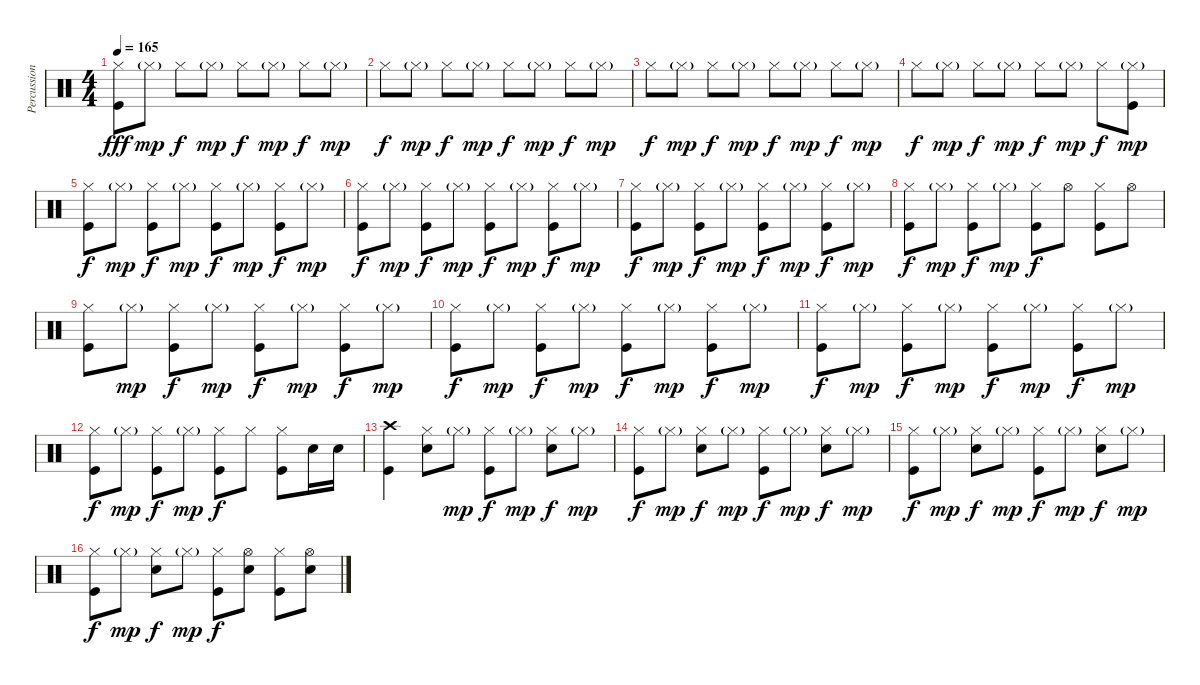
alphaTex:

\track ("Percussion" "Percussion") {instrument percussion}
\staff {score}
\articulation defaults
\ts (4 4)
\tempo 165
\clef neutral
\ks c
("Hi-Hat (closed)" "Kick (hit)").8{dy fff} "Hi-Hat (closed)"{g}.8{dy mp} "Hi-Hat (closed)".8{dy f} "Hi-Hat (closed)"{g}.8{dy mp} "Hi-Hat (closed)".8{dy f} "Hi-Hat (closed)"{g}.8{dy mp} "Hi-Hat (closed)".8{dy f} "Hi-Hat (closed)"{g}.8{dy mp} |
"Hi-Hat (closed)".8{dy f} "Hi-Hat (closed)"{g}.8{dy mp} "Hi-Hat (closed)".8{dy f} "Hi-Hat (closed)"{g}.8{dy mp} "Hi-Hat (closed)".8{dy f} "Hi-Hat (closed)"{g}.8{dy mp} "Hi-Hat (closed)".8{dy f} "Hi-Hat (closed)"{g}.8{dy mp} |
"Hi-Hat (closed)".8{dy f} "Hi-Hat (closed)"{g}.8{dy mp} "Hi-Hat (closed)".8{dy f} "Hi-Hat (closed)"{g}.8{dy mp} "Hi-Hat (closed)".8{dy f} "Hi-Hat (closed)"{g}.8{dy mp} "Hi-Hat (closed)".8{dy f} "Hi-Hat (closed)"{g}.8{dy mp} |
"Hi-Hat (closed)".8{dy f} "Hi-Hat (closed)"{g}.8{dy mp} "Hi-Hat (closed)".8{dy f} "Hi-Hat (closed)"{g}.8{dy mp} "Hi-Hat (closed)".8{dy f} "Hi-Hat (closed)"{g}.8{dy mp} "Hi-Hat (closed)".8{dy f} ("Hi-Hat (closed)"{g} "Kick (hit)").8{dy mp} |
("Hi-Hat (closed)" "Kick (hit)").8{dy f} "Hi-Hat (closed)"{g}.8{dy mp} ("Hi-Hat (closed)" "Kick (hit)").8{dy f} "Hi-Hat (closed)"{g}.8{dy mp} ("Hi-Hat (closed)" "Kick (hit)").8{dy f} "Hi-Hat (closed)"{g}.8{dy mp} ("Hi-Hat (closed)" "Kick (hit)").8{dy f} "Hi-Hat (closed)"{g}.8{dy mp} |
("Hi-Hat (closed)" "Kick (hit)").8{dy f} "Hi-Hat (closed)"{g}.8{dy mp} ("Hi-Hat (closed)" "Kick (hit)").8{dy f} "Hi-Hat (closed)"{g}.8{dy mp} ("Hi-Hat (closed)" "Kick (hit)").8{dy f} "Hi-Hat (closed)"{g}.8{dy mp} ("Hi-Hat (closed)" "Kick (hit)").8{dy f} "Hi-Hat (closed)"{g}.8{dy mp} |
("Hi-Hat (closed)" "Kick (hit)").8{dy f} "Hi-Hat (closed)"{g}.8{dy mp} ("Hi-Hat (closed)" "Kick (hit)").8{dy f} "Hi-Hat (closed)"{g}.8{dy mp} ("Hi-Hat (closed)" "Kick (hit)").8{dy f} "Hi-Hat (closed)"{g}.8{dy mp} ("Hi-Hat (closed)" "Kick (hit)").8{dy f} "Hi-Hat (closed)"{g}.8{dy mp} |
("Hi-Hat (closed)" "Kick (hit)").8{dy f} "Hi-Hat (closed)"{g}.8{dy mp} ("Hi-Hat (closed)" "Kick (hit)").8{dy f} "Hi-Hat (closed)"{g}.8{dy mp} ("Hi-Hat (closed)" "Kick (hit)").8{dy f} "Hi-Hat (open)".8 ("Hi-Hat (closed)" "Kick (hit)").8 "Hi-Hat (open)".8 |
("Hi-Hat (closed)" "Kick (hit)").8 "Hi-Hat (closed)"{g}.8{dy mp} ("Hi-Hat (closed)" "Kick (hit)").8{dy f} "Hi-Hat (closed)"{g}.8{dy mp} ("Hi-Hat (closed)" "Kick (hit)").8{dy f} "Hi-Hat (closed)"{g}.8{dy mp} ("Hi-Hat (closed)" "Kick (hit)").8{dy f} "Hi-Hat (closed)"{g}.8{dy mp} |
("Hi-Hat (closed)" "Kick (hit)").8{dy f} "Hi-Hat (closed)"{g}.8{dy mp} ("Hi-Hat (closed)" "Kick (hit)").8{dy f} "Hi-Hat (closed)"{g}.8{dy mp} ("Hi-Hat (closed)" "Kick (hit)").8{dy f} "Hi-Hat (closed)"{g}.8{dy mp} ("Hi-Hat (closed)" "Kick (hit)").8{dy f} "Hi-Hat (closed)"{g}.8{dy mp} |
("Hi-Hat (closed)" "Kick (hit)").8{dy f} "Hi-Hat (closed)"{g}.8{dy mp} ("Hi-Hat (closed)" "Kick (hit)").8{dy f} "Hi-Hat (closed)"{g}.8{dy mp} ("Hi-Hat (closed)" "Kick (hit)").8{dy f} "Hi-Hat (closed)"{g}.8{dy mp} ("Hi-Hat (closed)" "Kick (hit)").8{dy f} "Hi-Hat (closed)"{g}.8{dy mp} |
("Hi-Hat (closed)" "Kick (hit)").8{dy f} "Hi-Hat (closed)"{g}.8{dy mp} ("Hi-Hat (closed)" "Kick (hit)").8{dy f} "Hi-Hat (closed)"{g}.8{dy mp} ("Hi-Hat (closed)" "Kick (hit)").8{dy f} "Hi-Hat (closed)".8 ("Hi-Hat (closed)" "Kick (hit)").8 "Snare (hit) 2".16 "Snare (hit) 2".16 |
("Crash high (hit)" "Kick (hit)").4 ("Hi-Hat (closed)" "Snare (hit) 2").8 "Hi-Hat (closed)"{g}.8{dy mp} ("Hi-Hat (closed)" "Kick (hit)").8{dy f} "Hi-Hat (closed)"{g}.8{dy mp} ("Hi-Hat (closed)" "Snare (hit) 2").8{dy f} "Hi-Hat (closed)"{g}.8{dy mp} |
("Hi-Hat (closed)" "Kick (hit)").8{dy f} "Hi-Hat (closed)"{g}.8{dy mp} ("Hi-Hat (closed)" "Snare (hit) 2").8{dy f} "Hi-Hat (closed)"{g}.8{dy mp} ("Hi-Hat (closed)" "Kick (hit)").8{dy f} "Hi-Hat (closed)"{g}.8{dy mp} ("Hi-Hat (closed)" "Snare (hit) 2").8{dy f} "Hi-Hat (closed)"{g}.8{dy mp} |
("Hi-Hat (closed)" "Kick (hit)").8{dy f} "Hi-Hat (closed)"{g}.8{dy mp} ("Hi-Hat (closed)" "Snare (hit) 2").8{dy f} "Hi-Hat (closed)"{g}.8{dy mp} ("Hi-Hat (closed)" "Kick (hit)").8{dy f} "Hi-Hat (closed)"{g}.8{dy mp} ("Hi-Hat (closed)" "Snare (hit) 2").8{dy f} "Hi-Hat (closed)"{g}.8{dy mp} |
("Hi-Hat (closed)" "Kick (hit)").8{dy f} "Hi-Hat (closed)"{g}.8{dy mp} ("Hi-Hat (closed)" "Snare (hit) 2").8{dy f} "Hi-Hat (closed)"{g}.8{dy mp} ("Hi-Hat (closed)" "Kick (hit)").8{dy f} ("Hi-Hat (open)" "Snare (hit) 2").8 ("Hi-Hat (closed)" "Kick (hit)").8 ("Hi-Hat (open)" "Snare (hit) 2").8
